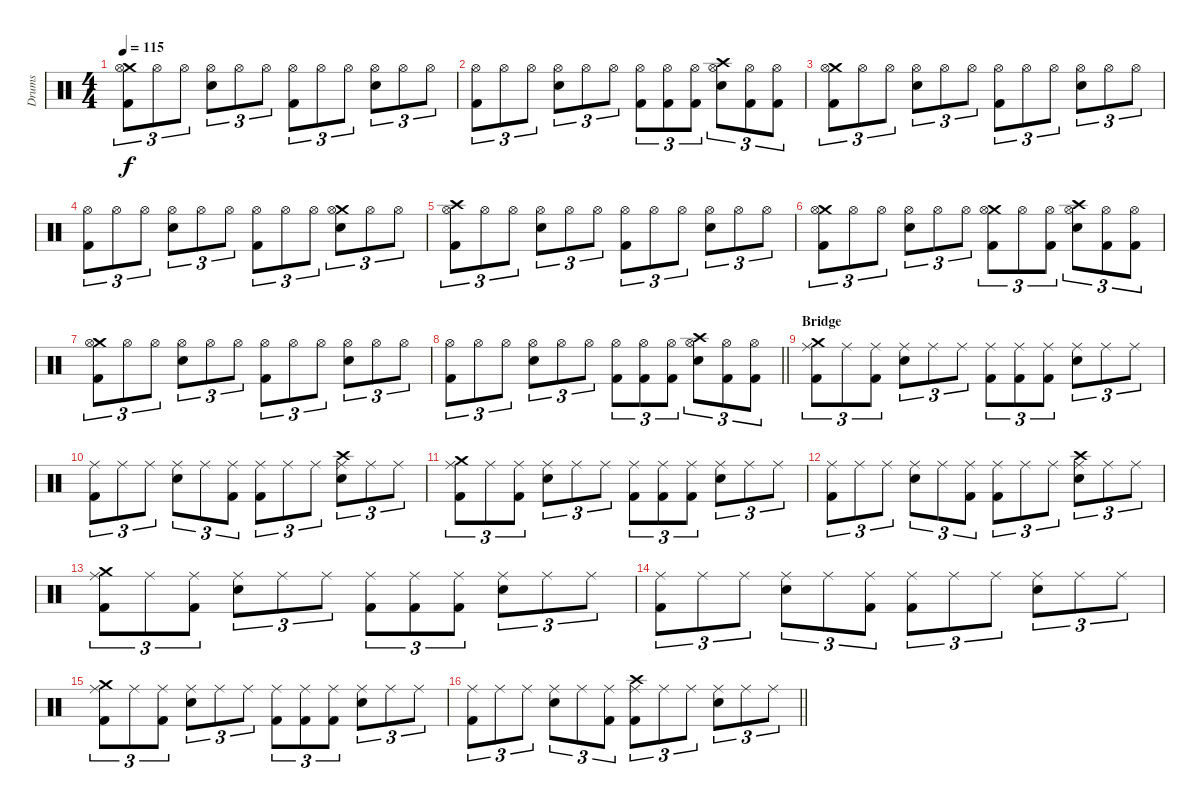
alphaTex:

\track ("Drums" "Drums") {instrument percussion}
\staff {score}
\articulation defaults
\ts (4 4)
\tempo 115
\clef neutral
\ks c
("Crash medium (hit)" "Hi-Hat (open)" "Kick (hit) 2").8{tu (3 2) dy f} "Hi-Hat (open)".8{tu (3 2)} "Hi-Hat (open)".8{tu (3 2)} ("Hi-Hat (open)" "Snare (hit) 2").8{tu (3 2)} "Hi-Hat (open)".8{tu (3 2)} "Hi-Hat (open)".8{tu (3 2)} ("Hi-Hat (open)" "Kick (hit) 2").8{tu (3 2)} "Hi-Hat (open)".8{tu (3 2)} "Hi-Hat (open)".8{tu (3 2)} ("Hi-Hat (open)" "Snare (hit) 2").8{tu (3 2)} "Hi-Hat (open)".8{tu (3 2)} "Hi-Hat (open)".8{tu (3 2)} |
("Hi-Hat (open)" "Kick (hit) 2").8{tu (3 2)} "Hi-Hat (open)".8{tu (3 2)} "Hi-Hat (open)".8{tu (3 2)} ("Hi-Hat (open)" "Snare (hit) 2").8{tu (3 2)} "Hi-Hat (open)".8{tu (3 2)} "Hi-Hat (open)".8{tu (3 2)} ("Hi-Hat (open)" "Kick (hit) 2").8{tu (3 2)} ("Hi-Hat (open)" "Kick (hit) 2").8{tu (3 2)} ("Hi-Hat (open)" "Kick (hit) 2").8{tu (3 2)} ("Crash high (hit)" "Hi-Hat (open)" "Snare (hit) 2").8{tu (3 2)} ("Hi-Hat (open)" "Kick (hit) 2").8{tu (3 2)} ("Hi-Hat (open)" "Kick (hit) 2").8{tu (3 2)} |
("Crash medium (hit)" "Hi-Hat (open)" "Kick (hit) 2").8{tu (3 2)} "Hi-Hat (open)".8{tu (3 2)} "Hi-Hat (open)".8{tu (3 2)} ("Hi-Hat (open)" "Snare (hit) 2").8{tu (3 2)} "Hi-Hat (open)".8{tu (3 2)} "Hi-Hat (open)".8{tu (3 2)} ("Hi-Hat (open)" "Kick (hit) 2").8{tu (3 2)} "Hi-Hat (open)".8{tu (3 2)} "Hi-Hat (open)".8{tu (3 2)} ("Hi-Hat (open)" "Snare (hit) 2").8{tu (3 2)} "Hi-Hat (open)".8{tu (3 2)} "Hi-Hat (open)".8{tu (3 2)} |
("Hi-Hat (open)" "Kick (hit) 2").8{tu (3 2)} "Hi-Hat (open)".8{tu (3 2)} "Hi-Hat (open)".8{tu (3 2)} ("Hi-Hat (open)" "Snare (hit) 2").8{tu (3 2)} "Hi-Hat (open)".8{tu (3 2)} "Hi-Hat (open)".8{tu (3 2)} ("Hi-Hat (open)" "Kick (hit) 2").8{tu (3 2)} "Hi-Hat (open)".8{tu (3 2)} "Hi-Hat (open)".8{tu (3 2)} ("Crash medium (hit)" "Hi-Hat (open)" "Snare (hit) 2").8{tu (3 2)} "Hi-Hat (open)".8{tu (3 2)} "Hi-Hat (open)".8{tu (3 2)} |
("Crash high (hit)" "Hi-Hat (open)" "Kick (hit) 2").8{tu (3 2)} "Hi-Hat (open)".8{tu (3 2)} "Hi-Hat (open)".8{tu (3 2)} ("Hi-Hat (open)" "Snare (hit) 2").8{tu (3 2)} "Hi-Hat (open)".8{tu (3 2)} "Hi-Hat (open)".8{tu (3 2)} ("Hi-Hat (open)" "Kick (hit) 2").8{tu (3 2)} "Hi-Hat (open)".8{tu (3 2)} "Hi-Hat (open)".8{tu (3 2)} ("Hi-Hat (open)" "Snare (hit) 2").8{tu (3 2)} "Hi-Hat (open)".8{tu (3 2)} "Hi-Hat (open)".8{tu (3 2)} |
("Crash medium (hit)" "Hi-Hat (open)" "Kick (hit) 2").8{tu (3 2)} "Hi-Hat (open)".8{tu (3 2)} "Hi-Hat (open)".8{tu (3 2)} ("Hi-Hat (open)" "Snare (hit) 2").8{tu (3 2)} "Hi-Hat (open)".8{tu (3 2)} "Hi-Hat (open)".8{tu (3 2)} ("Crash medium (hit)" "Hi-Hat (open)" "Kick (hit) 2").8{tu (3 2)} "Hi-Hat (open)".8{tu (3 2)} ("Hi-Hat (open)" "Kick (hit) 2").8{tu (3 2)} ("Crash high (hit)" "Hi-Hat (open)" "Snare (hit) 2").8{tu (3 2)} ("Hi-Hat (open)" "Kick (hit) 2").8{tu (3 2)} ("Hi-Hat (open)" "Kick (hit) 2").8{tu (3 2)} |
("Crash medium (hit)" "Hi-Hat (open)" "Kick (hit) 2").8{tu (3 2)} "Hi-Hat (open)".8{tu (3 2)} "Hi-Hat (open)".8{tu (3 2)} ("Hi-Hat (open)" "Snare (hit) 2").8{tu (3 2)} "Hi-Hat (open)".8{tu (3 2)} "Hi-Hat (open)".8{tu (3 2)} ("Hi-Hat (open)" "Kick (hit) 2").8{tu (3 2)} "Hi-Hat (open)".8{tu (3 2)} "Hi-Hat (open)".8{tu (3 2)} ("Hi-Hat (open)" "Snare (hit) 2").8{tu (3 2)} "Hi-Hat (open)".8{tu (3 2)} "Hi-Hat (open)".8{tu (3 2)} |
\barLineRight lightlight
("Hi-Hat (open)" "Kick (hit) 2").8{tu (3 2)} "Hi-Hat (open)".8{tu (3 2)} "Hi-Hat (open)".8{tu (3 2)} ("Hi-Hat (open)" "Snare (hit) 2").8{tu (3 2)} "Hi-Hat (open)".8{tu (3 2)} "Hi-Hat (open)".8{tu (3 2)} ("Hi-Hat (open)" "Kick (hit) 2").8{tu (3 2)} ("Hi-Hat (open)" "Kick (hit) 2").8{tu (3 2)} ("Hi-Hat (open)" "Kick (hit) 2").8{tu (3 2)} ("Crash high (hit)" "Hi-Hat (open)" "Snare (hit) 2").8{tu (3 2)} ("Hi-Hat (open)" "Kick (hit) 2").8{tu (3 2)} ("Hi-Hat (open)" "Kick (hit) 2").8{tu (3 2)} |
\section ("" "Bridge")
("Crash medium (hit)" "Ride (middle)" "Kick (hit) 2").8{tu (3 2)} "Ride (middle)".8{tu (3 2)} ("Ride (middle)" "Kick (hit) 2").8{tu (3 2)} ("Ride (middle)" "Snare (hit) 2").8{tu (3 2)} "Ride (middle)".8{tu (3 2)} "Ride (middle)".8{tu (3 2)} ("Ride (middle)" "Kick (hit) 2").8{tu (3 2)} ("Ride (middle)" "Kick (hit) 2").8{tu (3 2)} ("Ride (middle)" "Kick (hit) 2").8{tu (3 2)} ("Ride (middle)" "Snare (hit) 2").8{tu (3 2)} "Ride (middle)".8{tu (3 2)} "Ride (middle)".8{tu (3 2)} |
("Ride (middle)" "Kick (hit) 2").8{tu (3 2)} "Ride (middle)".8{tu (3 2)} "Ride (middle)".8{tu (3 2)} ("Ride (middle)" "Snare (hit) 2").8{tu (3 2)} "Ride (middle)".8{tu (3 2)} ("Ride (middle)" "Kick (hit) 2").8{tu (3 2)} ("Ride (middle)" "Kick (hit) 2").8{tu (3 2)} "Ride (middle)".8{tu (3 2)} "Ride (middle)".8{tu (3 2)} ("Crash high (hit)" "Ride (middle)" "Snare (hit) 2").8{tu (3 2)} "Ride (middle)".8{tu (3 2)} "Ride (middle)".8{tu (3 2)} |
("Crash medium (hit)" "Ride (middle)" "Kick (hit) 2").8{tu (3 2)} "Ride (middle)".8{tu (3 2)} ("Ride (middle)" "Kick (hit) 2").8{tu (3 2)} ("Ride (middle)" "Snare (hit) 2").8{tu (3 2)} "Ride (middle)".8{tu (3 2)} "Ride (middle)".8{tu (3 2)} ("Ride (middle)" "Kick (hit) 2").8{tu (3 2)} ("Ride (middle)" "Kick (hit) 2").8{tu (3 2)} ("Ride (middle)" "Kick (hit) 2").8{tu (3 2)} ("Ride (middle)" "Snare (hit) 2").8{tu (3 2)} "Ride (middle)".8{tu (3 2)} "Ride (middle)".8{tu (3 2)} |
("Ride (middle)" "Kick (hit) 2").8{tu (3 2)} "Ride (middle)".8{tu (3 2)} "Ride (middle)".8{tu (3 2)} ("Ride (middle)" "Snare (hit) 2").8{tu (3 2)} "Ride (middle)".8{tu (3 2)} ("Ride (middle)" "Kick (hit) 2").8{tu (3 2)} ("Ride (middle)" "Kick (hit) 2").8{tu (3 2)} "Ride (middle)".8{tu (3 2)} "Ride (middle)".8{tu (3 2)} ("Crash high (hit)" "Ride (middle)" "Snare (hit) 2").8{tu (3 2)} "Ride (middle)".8{tu (3 2)} "Ride (middle)".8{tu (3 2)} |
("Crash medium (hit)" "Ride (middle)" "Kick (hit) 2").8{tu (3 2)} "Ride (middle)".8{tu (3 2)} ("Ride (middle)" "Kick (hit) 2").8{tu (3 2)} ("Ride (middle)" "Snare (hit) 2").8{tu (3 2)} "Ride (middle)".8{tu (3 2)} "Ride (middle)".8{tu (3 2)} ("Ride (middle)" "Kick (hit) 2").8{tu (3 2)} ("Ride (middle)" "Kick (hit) 2").8{tu (3 2)} ("Ride (middle)" "Kick (hit) 2").8{tu (3 2)} ("Ride (middle)" "Snare (hit) 2").8{tu (3 2)} "Ride (middle)".8{tu (3 2)} "Ride (middle)".8{tu (3 2)} |
("Ride (middle)" "Kick (hit) 2").8{tu (3 2)} "Ride (middle)".8{tu (3 2)} "Ride (middle)".8{tu (3 2)} ("Ride (middle)" "Snare (hit) 2").8{tu (3 2)} "Ride (middle)".8{tu (3 2)} ("Ride (middle)" "Kick (hit) 2").8{tu (3 2)} ("Ride (middle)" "Kick (hit) 2").8{tu (3 2)} "Ride (middle)".8{tu (3 2)} "Ride (middle)".8{tu (3 2)} ("Ride (middle)" "Snare (hit) 2").8{tu (3 2)} "Ride (middle)".8{tu (3 2)} "Ride (middle)".8{tu (3 2)} |
("Crash medium (hit)" "Ride (middle)" "Kick (hit) 2").8{tu (3 2)} "Ride (middle)".8{tu (3 2)} ("Ride (middle)" "Kick (hit) 2").8{tu (3 2)} ("Ride (middle)" "Snare (hit) 2").8{tu (3 2)} "Ride (middle)".8{tu (3 2)} "Ride (middle)".8{tu (3 2)} ("Ride (middle)" "Kick (hit) 2").8{tu (3 2)} ("Ride (middle)" "Kick (hit) 2").8{tu (3 2)} ("Ride (middle)" "Kick (hit) 2").8{tu (3 2)} ("Ride (middle)" "Snare (hit) 2").8{tu (3 2)} "Ride (middle)".8{tu (3 2)} "Ride (middle)".8{tu (3 2)} |
\barLineRight lightlight
("Ride (middle)" "Kick (hit) 2").8{tu (3 2)} "Ride (middle)".8{tu (3 2)} "Ride (middle)".8{tu (3 2)} ("Ride (middle)" "Snare (hit) 2").8{tu (3 2)} "Ride (middle)".8{tu (3 2)} ("Ride (middle)" "Kick (hit) 2").8{tu (3 2)} ("Crash high (hit)" "Ride (middle)" "Kick (hit) 2").8{tu (3 2)} "Ride (middle)".8{tu (3 2)} "Ride (middle)".8{tu (3 2)} ("Ride (middle)" "Snare (hit) 2").8{tu (3 2)} "Ride (middle)".8{tu (3 2)} "Ride (middle)".8{tu (3 2)}
